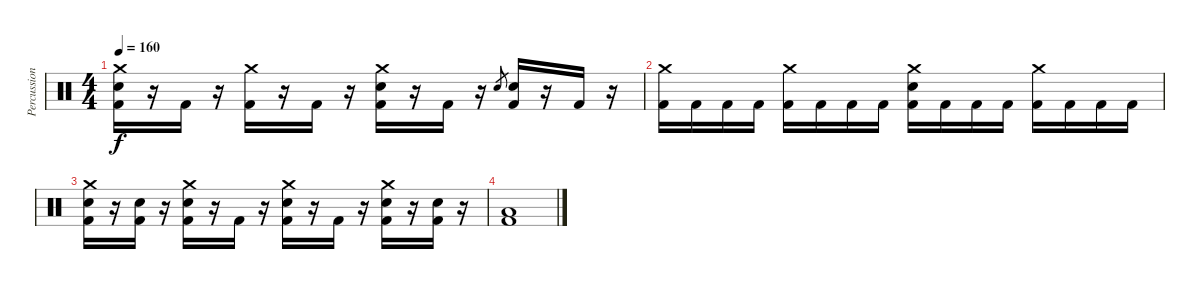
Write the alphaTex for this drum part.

\track ("Percussion" "Percussion") {instrument percussion}
\staff {score}
\articulation defaults
\ts (4 4)
\tempo 160
\clef neutral
\ks c
("Crash medium (hit)" "Electric Snare (hit)" "Kick (hit) 2").16{dy f} r.16 "Kick (hit) 2".16 r.16 ("Crash medium (hit)" "Kick (hit) 2").16 r.16 "Kick (hit) 2".16 r.16 ("Crash medium (hit)" "Electric Snare (hit)" "Kick (hit) 2").16 r.16 "Kick (hit) 2".16 r.16 "Electric Snare (hit)".8{gr} ("Electric Snare (hit)" "Kick (hit) 2").16 r.16 "Kick (hit) 2".16 r.16 |
("Crash medium (hit)" "Kick (hit) 2").16 "Kick (hit) 2".16 "Kick (hit) 2".16 "Kick (hit) 2".16 ("Crash medium (hit)" "Kick (hit) 2").16 "Kick (hit) 2".16 "Kick (hit) 2".16 "Kick (hit) 2".16 ("Crash medium (hit)" "Electric Snare (hit)" "Kick (hit) 2").16 "Kick (hit) 2".16 "Kick (hit) 2".16 "Kick (hit) 2".16 ("Crash medium (hit)" "Kick (hit) 2").16 "Kick (hit) 2".16 "Kick (hit) 2".16 "Kick (hit) 2".16 |
("Crash medium (hit)" "Electric Snare (hit)" "Kick (hit) 2").16 r.16 ("Electric Snare (hit)" "Kick (hit) 2").16 r.16 ("Crash medium (hit)" "Electric Snare (hit)" "Kick (hit) 2").16 r.16 "Kick (hit) 2".16 r.16 ("Crash medium (hit)" "Electric Snare (hit)" "Kick (hit) 2").16 r.16 "Kick (hit) 2".16 r.16 ("Crash medium (hit)" "Electric Snare (hit)" "Kick (hit) 2").16 r.16 ("Electric Snare (hit)" "Kick (hit) 2").16 r.16 |
("Low Floor Tom (hit)" "Kick (hit) 2").1
